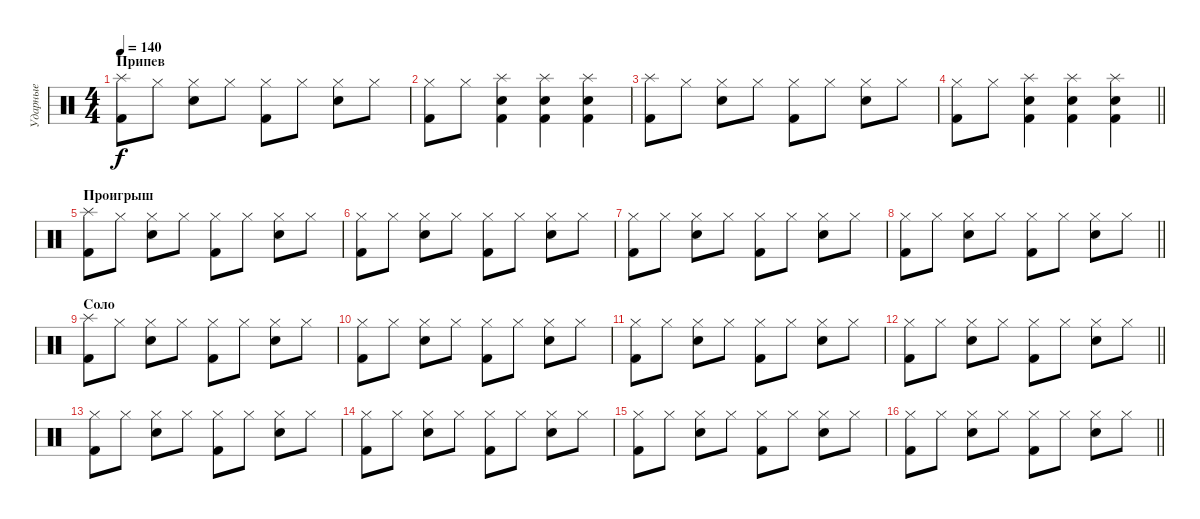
\track ("Ударные" "Ударные") {instrument percussion}
\staff {score}
\articulation defaults
\ts (4 4)
\section ("" "Припев")
\tempo 140
\clef neutral
\ks c
("Splash (hit)" "Kick (hit) 2").8{dy f} "Hi-Hat (closed)".8 ("Hi-Hat (closed)" "Snare (hit) 2").8 "Hi-Hat (closed)".8 ("Hi-Hat (closed)" "Kick (hit) 2").8 "Hi-Hat (closed)".8 ("Hi-Hat (closed)" "Snare (hit) 2").8 "Hi-Hat (closed)".8 |
("Hi-Hat (closed)" "Kick (hit) 2").8 "Hi-Hat (closed)".8 ("Splash (hit)" "Snare (hit) 2" "Kick (hit) 2").4 ("Splash (hit)" "Snare (hit) 2" "Kick (hit) 2").4 ("Splash (hit)" "Snare (hit) 2" "Kick (hit) 2").4 |
("Splash (hit)" "Kick (hit) 2").8 "Hi-Hat (closed)".8 ("Hi-Hat (closed)" "Snare (hit) 2").8 "Hi-Hat (closed)".8 ("Hi-Hat (closed)" "Kick (hit) 2").8 "Hi-Hat (closed)".8 ("Hi-Hat (closed)" "Snare (hit) 2").8 "Hi-Hat (closed)".8 |
\barLineRight lightlight
("Hi-Hat (closed)" "Kick (hit) 2").8 "Hi-Hat (closed)".8 ("Splash (hit)" "Snare (hit) 2" "Kick (hit) 2").4 ("Splash (hit)" "Snare (hit) 2" "Kick (hit) 2").4 ("Splash (hit)" "Snare (hit) 2" "Kick (hit) 2").4 |
\section ("" "Проигрыш")
("Splash (hit)" "Kick (hit) 2").8 "Hi-Hat (closed)".8 ("Hi-Hat (closed)" "Snare (hit) 2").8 "Hi-Hat (closed)".8 ("Hi-Hat (closed)" "Kick (hit) 2").8 "Hi-Hat (closed)".8 ("Hi-Hat (closed)" "Snare (hit) 2").8 "Hi-Hat (closed)".8 |
("Hi-Hat (closed)" "Kick (hit) 2").8 "Hi-Hat (closed)".8 ("Hi-Hat (closed)" "Snare (hit) 2").8 "Hi-Hat (closed)".8 ("Hi-Hat (closed)" "Kick (hit) 2").8 "Hi-Hat (closed)".8 ("Hi-Hat (closed)" "Snare (hit) 2").8 "Hi-Hat (closed)".8 |
("Hi-Hat (closed)" "Kick (hit) 2").8 "Hi-Hat (closed)".8 ("Hi-Hat (closed)" "Snare (hit) 2").8 "Hi-Hat (closed)".8 ("Hi-Hat (closed)" "Kick (hit) 2").8 "Hi-Hat (closed)".8 ("Hi-Hat (closed)" "Snare (hit) 2").8 "Hi-Hat (closed)".8 |
\barLineRight lightlight
("Hi-Hat (closed)" "Kick (hit) 2").8 "Hi-Hat (closed)".8 ("Hi-Hat (closed)" "Snare (hit) 2").8 "Hi-Hat (closed)".8 ("Hi-Hat (closed)" "Kick (hit) 2").8 "Hi-Hat (closed)".8 ("Hi-Hat (closed)" "Snare (hit) 2").8 "Hi-Hat (closed)".8 |
\section ("" "Соло")
("Splash (hit)" "Kick (hit) 2").8 "Hi-Hat (closed)".8 ("Hi-Hat (closed)" "Snare (hit) 2").8 "Hi-Hat (closed)".8 ("Hi-Hat (closed)" "Kick (hit) 2").8 "Hi-Hat (closed)".8 ("Hi-Hat (closed)" "Snare (hit) 2").8 "Hi-Hat (closed)".8 |
("Hi-Hat (closed)" "Kick (hit) 2").8 "Hi-Hat (closed)".8 ("Hi-Hat (closed)" "Snare (hit) 2").8 "Hi-Hat (closed)".8 ("Hi-Hat (closed)" "Kick (hit) 2").8 "Hi-Hat (closed)".8 ("Hi-Hat (closed)" "Snare (hit) 2").8 "Hi-Hat (closed)".8 |
("Hi-Hat (closed)" "Kick (hit) 2").8 "Hi-Hat (closed)".8 ("Hi-Hat (closed)" "Snare (hit) 2").8 "Hi-Hat (closed)".8 ("Hi-Hat (closed)" "Kick (hit) 2").8 "Hi-Hat (closed)".8 ("Hi-Hat (closed)" "Snare (hit) 2").8 "Hi-Hat (closed)".8 |
\barLineRight lightlight
("Hi-Hat (closed)" "Kick (hit) 2").8 "Hi-Hat (closed)".8 ("Hi-Hat (closed)" "Snare (hit) 2").8 "Hi-Hat (closed)".8 ("Hi-Hat (closed)" "Kick (hit) 2").8 "Hi-Hat (closed)".8 ("Hi-Hat (closed)" "Snare (hit) 2").8 "Hi-Hat (closed)".8 |
("Hi-Hat (closed)" "Kick (hit) 2").8 "Hi-Hat (closed)".8 ("Hi-Hat (closed)" "Snare (hit) 2").8 "Hi-Hat (closed)".8 ("Hi-Hat (closed)" "Kick (hit) 2").8 "Hi-Hat (closed)".8 ("Hi-Hat (closed)" "Snare (hit) 2").8 "Hi-Hat (closed)".8 |
("Hi-Hat (closed)" "Kick (hit) 2").8 "Hi-Hat (closed)".8 ("Hi-Hat (closed)" "Snare (hit) 2").8 "Hi-Hat (closed)".8 ("Hi-Hat (closed)" "Kick (hit) 2").8 "Hi-Hat (closed)".8 ("Hi-Hat (closed)" "Snare (hit) 2").8 "Hi-Hat (closed)".8 |
("Hi-Hat (closed)" "Kick (hit) 2").8 "Hi-Hat (closed)".8 ("Hi-Hat (closed)" "Snare (hit) 2").8 "Hi-Hat (closed)".8 ("Hi-Hat (closed)" "Kick (hit) 2").8 "Hi-Hat (closed)".8 ("Hi-Hat (closed)" "Snare (hit) 2").8 "Hi-Hat (closed)".8 |
\barLineRight lightlight
("Hi-Hat (closed)" "Kick (hit) 2").8 "Hi-Hat (closed)".8 ("Hi-Hat (closed)" "Snare (hit) 2").8 "Hi-Hat (closed)".8 ("Hi-Hat (closed)" "Kick (hit) 2").8 "Hi-Hat (closed)".8 ("Hi-Hat (closed)" "Snare (hit) 2").8 "Hi-Hat (closed)".8
